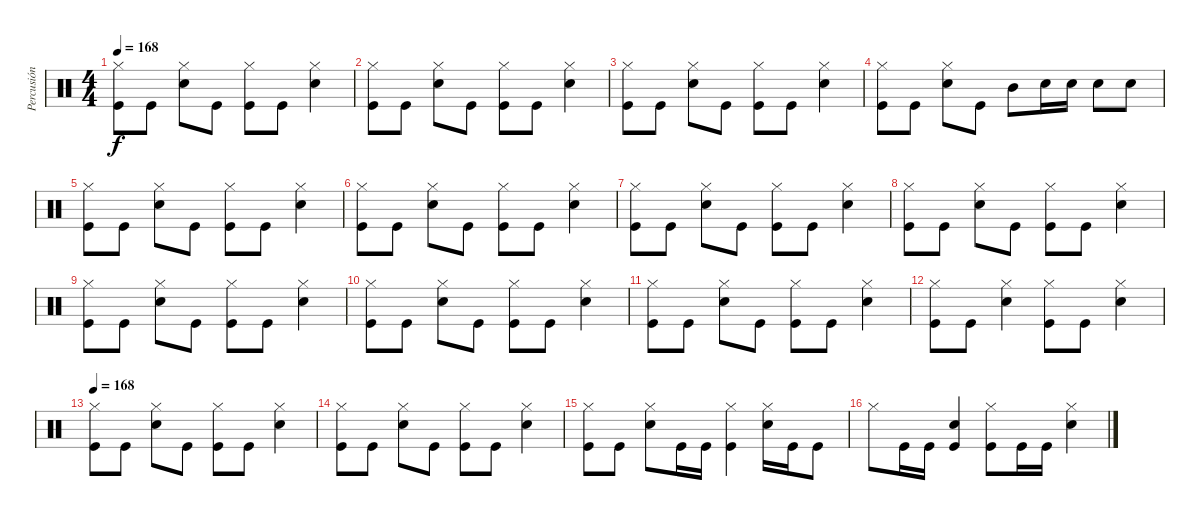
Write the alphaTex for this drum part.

\track ("Percusión" "Percusión") {instrument percussion}
\staff {score}
\articulation defaults
\ts (4 4)
\tempo 168
\clef neutral
\ks c
("Hi-Hat (closed)" "Kick (hit)").8{dy f} "Kick (hit)".8 ("Hi-Hat (closed)" "Snare (hit) 2").8 "Kick (hit)".8 ("Hi-Hat (closed)" "Kick (hit)").8 "Kick (hit)".8 ("Hi-Hat (closed)" "Snare (hit) 2").4 |
("Hi-Hat (closed)" "Kick (hit)").8 "Kick (hit)".8 ("Hi-Hat (closed)" "Snare (hit) 2").8 "Kick (hit)".8 ("Hi-Hat (closed)" "Kick (hit)").8 "Kick (hit)".8 ("Hi-Hat (closed)" "Snare (hit) 2").4 |
("Hi-Hat (closed)" "Kick (hit)").8 "Kick (hit)".8 ("Hi-Hat (closed)" "Snare (hit) 2").8 "Kick (hit)".8 ("Hi-Hat (closed)" "Kick (hit)").8 "Kick (hit)".8 ("Hi-Hat (closed)" "Snare (hit) 2").4 |
("Hi-Hat (closed)" "Kick (hit)").8 "Kick (hit)".8 ("Hi-Hat (closed)" "Snare (hit) 2").8 "Kick (hit)".8 "Mid Tom (hit)".8 "Snare (hit) 2".16 "Snare (hit) 2".16 "Snare (hit) 2".8 "Snare (hit) 2".8 |
("Hi-Hat (closed)" "Kick (hit)").8 "Kick (hit)".8 ("Hi-Hat (closed)" "Snare (hit) 2").8 "Kick (hit)".8 ("Hi-Hat (closed)" "Kick (hit)").8 "Kick (hit)".8 ("Hi-Hat (closed)" "Snare (hit) 2").4 |
("Hi-Hat (closed)" "Kick (hit)").8 "Kick (hit)".8 ("Hi-Hat (closed)" "Snare (hit) 2").8 "Kick (hit)".8 ("Hi-Hat (closed)" "Kick (hit)").8 "Kick (hit)".8 ("Hi-Hat (closed)" "Snare (hit) 2").4 |
("Hi-Hat (closed)" "Kick (hit)").8 "Kick (hit)".8 ("Hi-Hat (closed)" "Snare (hit) 2").8 "Kick (hit)".8 ("Hi-Hat (closed)" "Kick (hit)").8 "Kick (hit)".8 ("Hi-Hat (closed)" "Snare (hit) 2").4 |
("Hi-Hat (closed)" "Kick (hit)").8 "Kick (hit)".8 ("Hi-Hat (closed)" "Snare (hit) 2").8 "Kick (hit)".8 ("Hi-Hat (closed)" "Kick (hit)").8 "Kick (hit)".8 ("Hi-Hat (closed)" "Snare (hit) 2").4 |
("Hi-Hat (closed)" "Kick (hit)").8 "Kick (hit)".8 ("Hi-Hat (closed)" "Snare (hit) 2").8 "Kick (hit)".8 ("Hi-Hat (closed)" "Kick (hit)").8 "Kick (hit)".8 ("Hi-Hat (closed)" "Snare (hit) 2").4 |
("Hi-Hat (closed)" "Kick (hit)").8 "Kick (hit)".8 ("Hi-Hat (closed)" "Snare (hit) 2").8 "Kick (hit)".8 ("Hi-Hat (closed)" "Kick (hit)").8 "Kick (hit)".8 ("Hi-Hat (closed)" "Snare (hit) 2").4 |
("Hi-Hat (closed)" "Kick (hit)").8 "Kick (hit)".8 ("Hi-Hat (closed)" "Snare (hit) 2").8 "Kick (hit)".8 ("Hi-Hat (closed)" "Kick (hit)").8 "Kick (hit)".8 ("Hi-Hat (closed)" "Snare (hit) 2").4 |
("Hi-Hat (closed)" "Kick (hit)").8 "Kick (hit)".8 ("Hi-Hat (closed)" "Snare (hit) 2").4 ("Hi-Hat (closed)" "Kick (hit)").8 "Kick (hit)".8 ("Hi-Hat (closed)" "Snare (hit) 2").4 |
\tempo 168
("Hi-Hat (closed)" "Kick (hit)").8 "Kick (hit)".8 ("Hi-Hat (closed)" "Snare (hit) 2").8 "Kick (hit)".8 ("Hi-Hat (closed)" "Kick (hit)").8 "Kick (hit)".8 ("Hi-Hat (closed)" "Snare (hit) 2").4 |
("Hi-Hat (closed)" "Kick (hit)").8 "Kick (hit)".8 ("Hi-Hat (closed)" "Snare (hit) 2").8 "Kick (hit)".8 ("Hi-Hat (closed)" "Kick (hit)").8 "Kick (hit)".8 ("Hi-Hat (closed)" "Snare (hit) 2").4 |
("Hi-Hat (closed)" "Kick (hit)").8 "Kick (hit)".8 ("Hi-Hat (closed)" "Snare (hit) 2").8 "Kick (hit)".16 "Kick (hit)".16 ("Hi-Hat (closed)" "Kick (hit)").4 ("Hi-Hat (closed)" "Snare (hit) 2").16 "Kick (hit)".16 "Kick (hit)".8 |
"Hi-Hat (closed)".8 "Kick (hit)".16 "Kick (hit)".16 ("Snare (hit) 2" "Kick (hit)").4 ("Hi-Hat (closed)" "Kick (hit)").8 "Kick (hit)".16 "Kick (hit)".16 ("Hi-Hat (closed)" "Snare (hit) 2").4
